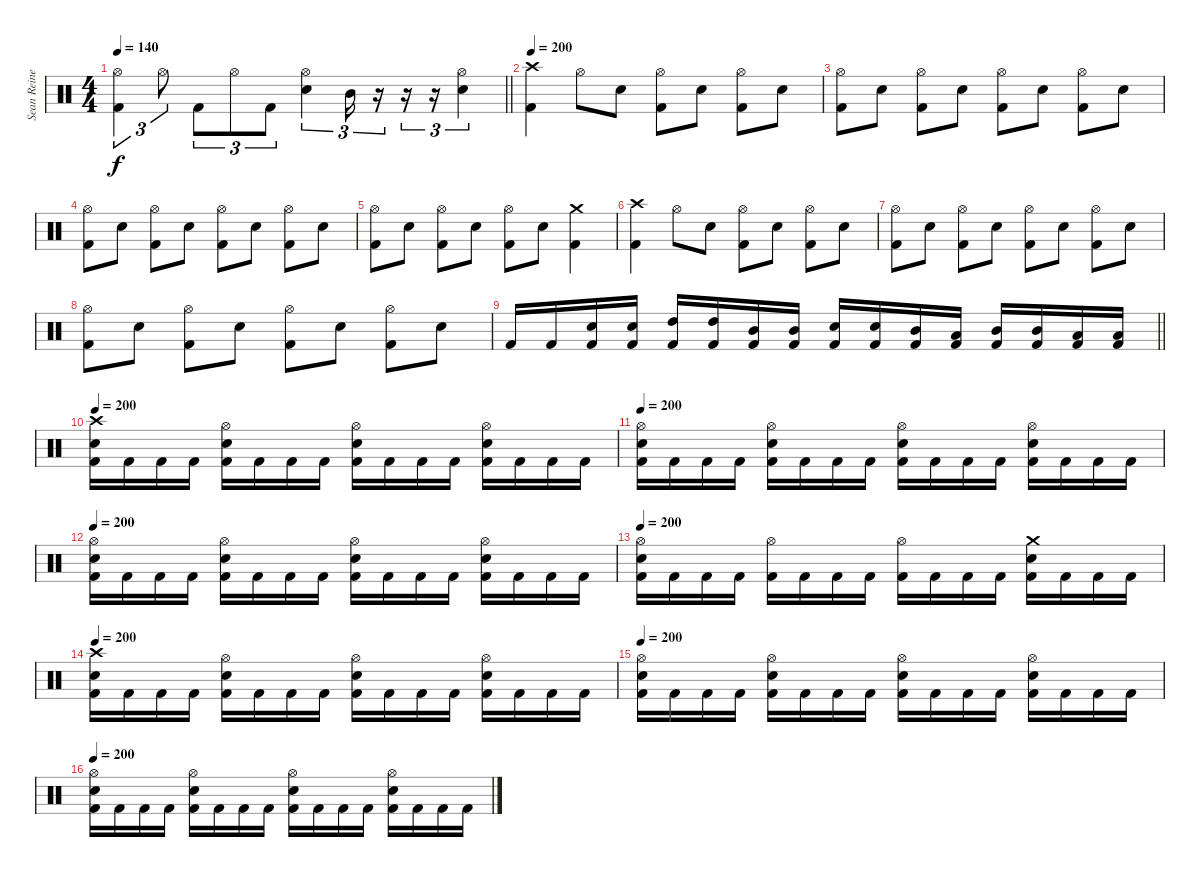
\track ("Sean Reinert" "Sean Reine") {instrument percussion}
\staff {score}
\articulation defaults
\ts (4 4)
\tempo 140
\clef neutral
\barLineRight lightlight
\ks c
("Hi-Hat (open)" "Kick (hit) 2").4{tu (3 2) dy f} "Hi-Hat (open)".8{tu (3 2)} "Kick (hit) 2".8{tu (3 2)} "Hi-Hat (open)".8{tu (3 2)} "Kick (hit) 2".8{tu (3 2)} ("Hi-Hat (open)" "Electric Snare (hit)").4{tu (3 2)} "Mid Tom (hit)".16{tu (3 2)} r.16{tu (3 2)} r.16{tu (3 2)} r.16{tu (3 2)} ("Hi-Hat (open)" "Electric Snare (hit)").4{tu (3 2)} |
\tempo 200
("Crash high (hit)" "Kick (hit) 2").4 "Hi-Hat (open)".8 "Electric Snare (hit)".8 ("Hi-Hat (open)" "Kick (hit) 2").8 "Electric Snare (hit)".8 ("Hi-Hat (open)" "Kick (hit) 2").8 "Electric Snare (hit)".8 |
("Hi-Hat (open)" "Kick (hit) 2").8 "Electric Snare (hit)".8 ("Hi-Hat (open)" "Kick (hit) 2").8 "Electric Snare (hit)".8 ("Hi-Hat (open)" "Kick (hit) 2").8 "Electric Snare (hit)".8 ("Hi-Hat (open)" "Kick (hit) 2").8 "Electric Snare (hit)".8 |
("Hi-Hat (open)" "Kick (hit) 2").8 "Electric Snare (hit)".8 ("Hi-Hat (open)" "Kick (hit) 2").8 "Electric Snare (hit)".8 ("Hi-Hat (open)" "Kick (hit) 2").8 "Electric Snare (hit)".8 ("Hi-Hat (open)" "Kick (hit) 2").8 "Electric Snare (hit)".8 |
("Hi-Hat (open)" "Kick (hit) 2").8 "Electric Snare (hit)".8 ("Hi-Hat (open)" "Kick (hit) 2").8 "Electric Snare (hit)".8 ("Hi-Hat (open)" "Kick (hit) 2").8 "Electric Snare (hit)".8 ("Crash medium (hit)" "Kick (hit) 2").4 |
("Crash high (hit)" "Kick (hit) 2").4 "Hi-Hat (open)".8 "Electric Snare (hit)".8 ("Hi-Hat (open)" "Kick (hit) 2").8 "Electric Snare (hit)".8 ("Hi-Hat (open)" "Kick (hit) 2").8 "Electric Snare (hit)".8 |
("Hi-Hat (open)" "Kick (hit) 2").8 "Electric Snare (hit)".8 ("Hi-Hat (open)" "Kick (hit) 2").8 "Electric Snare (hit)".8 ("Hi-Hat (open)" "Kick (hit) 2").8 "Electric Snare (hit)".8 ("Hi-Hat (open)" "Kick (hit) 2").8 "Electric Snare (hit)".8 |
("Hi-Hat (open)" "Kick (hit) 2").8 "Electric Snare (hit)".8 ("Hi-Hat (open)" "Kick (hit) 2").8 "Electric Snare (hit)".8 ("Hi-Hat (open)" "Kick (hit) 2").8 "Electric Snare (hit)".8 ("Hi-Hat (open)" "Kick (hit) 2").8 "Electric Snare (hit)".8 |
\barLineRight lightlight "Kick (hit) 2".16 "Kick (hit) 2".16
("Electric Snare (hit)" "Kick (hit) 2").16 ("Electric Snare (hit)" "Kick (hit) 2").16 ("High Tom (hit)" "Kick (hit) 2").16 ("High Tom (hit)" "Kick (hit) 2").16 ("Mid Tom (hit)" "Kick (hit) 2").16 ("Mid Tom (hit)" "Kick (hit) 2").16 ("Electric Snare (hit)" "Kick (hit) 2").16 ("Electric Snare (hit)" "Kick (hit) 2").16 ("Mid Tom (hit)" "Kick (hit) 2").16 ("Low Tom (hit)" "Kick (hit) 2").16 ("Mid Tom (hit)" "Kick (hit) 2").16 ("Mid Tom (hit)" "Kick (hit) 2").16 ("Low Tom (hit)" "Kick (hit) 2").16 ("Low Tom (hit)" "Kick (hit) 2").16 |
\tempo 200
("Crash high (hit)" "Electric Snare (hit)" "Kick (hit) 2").16 "Kick (hit) 2".16 "Kick (hit) 2".16 "Kick (hit) 2".16 ("Hi-Hat (open)" "Electric Snare (hit)" "Kick (hit) 2").16 "Kick (hit) 2".16 "Kick (hit) 2".16 "Kick (hit) 2".16 ("Hi-Hat (open)" "Electric Snare (hit)" "Kick (hit) 2").16 "Kick (hit) 2".16 "Kick (hit) 2".16 "Kick (hit) 2".16 ("Hi-Hat (open)" "Electric Snare (hit)" "Kick (hit) 2").16 "Kick (hit) 2".16 "Kick (hit) 2".16 "Kick (hit) 2".16 |
\tempo 200
("Hi-Hat (open)" "Electric Snare (hit)" "Kick (hit) 2").16 "Kick (hit) 2".16 "Kick (hit) 2".16 "Kick (hit) 2".16 ("Hi-Hat (open)" "Electric Snare (hit)" "Kick (hit) 2").16 "Kick (hit) 2".16 "Kick (hit) 2".16 "Kick (hit) 2".16 ("Hi-Hat (open)" "Electric Snare (hit)" "Kick (hit) 2").16 "Kick (hit) 2".16 "Kick (hit) 2".16 "Kick (hit) 2".16 ("Hi-Hat (open)" "Electric Snare (hit)" "Kick (hit) 2").16 "Kick (hit) 2".16 "Kick (hit) 2".16 "Kick (hit) 2".16 |
\tempo 200
("Hi-Hat (open)" "Electric Snare (hit)" "Kick (hit) 2").16 "Kick (hit) 2".16 "Kick (hit) 2".16 "Kick (hit) 2".16 ("Hi-Hat (open)" "Electric Snare (hit)" "Kick (hit) 2").16 "Kick (hit) 2".16 "Kick (hit) 2".16 "Kick (hit) 2".16 ("Hi-Hat (open)" "Electric Snare (hit)" "Kick (hit) 2").16 "Kick (hit) 2".16 "Kick (hit) 2".16 "Kick (hit) 2".16 ("Hi-Hat (open)" "Electric Snare (hit)" "Kick (hit) 2").16 "Kick (hit) 2".16 "Kick (hit) 2".16 "Kick (hit) 2".16 |
\tempo 200
("Hi-Hat (open)" "Electric Snare (hit)" "Kick (hit) 2").16 "Kick (hit) 2".16 "Kick (hit) 2".16 "Kick (hit) 2".16 ("Hi-Hat (open)" "Kick (hit) 2").16 "Kick (hit) 2".16 "Kick (hit) 2".16 "Kick (hit) 2".16 ("Hi-Hat (open)" "Kick (hit) 2").16 "Kick (hit) 2".16 "Kick (hit) 2".16 "Kick (hit) 2".16 ("Crash medium (hit)" "Electric Snare (hit)" "Kick (hit) 2").16 "Kick (hit) 2".16 "Kick (hit) 2".16 "Kick (hit) 2".16 |
\tempo 200
("Crash high (hit)" "Electric Snare (hit)" "Kick (hit) 2").16 "Kick (hit) 2".16 "Kick (hit) 2".16 "Kick (hit) 2".16 ("Hi-Hat (open)" "Electric Snare (hit)" "Kick (hit) 2").16 "Kick (hit) 2".16 "Kick (hit) 2".16 "Kick (hit) 2".16 ("Hi-Hat (open)" "Electric Snare (hit)" "Kick (hit) 2").16 "Kick (hit) 2".16 "Kick (hit) 2".16 "Kick (hit) 2".16 ("Hi-Hat (open)" "Electric Snare (hit)" "Kick (hit) 2").16 "Kick (hit) 2".16 "Kick (hit) 2".16 "Kick (hit) 2".16 |
\tempo 200
("Hi-Hat (open)" "Electric Snare (hit)" "Kick (hit) 2").16 "Kick (hit) 2".16 "Kick (hit) 2".16 "Kick (hit) 2".16 ("Hi-Hat (open)" "Electric Snare (hit)" "Kick (hit) 2").16 "Kick (hit) 2".16 "Kick (hit) 2".16 "Kick (hit) 2".16 ("Hi-Hat (open)" "Electric Snare (hit)" "Kick (hit) 2").16 "Kick (hit) 2".16 "Kick (hit) 2".16 "Kick (hit) 2".16 ("Hi-Hat (open)" "Electric Snare (hit)" "Kick (hit) 2").16 "Kick (hit) 2".16 "Kick (hit) 2".16 "Kick (hit) 2".16 |
\tempo 200
("Hi-Hat (open)" "Electric Snare (hit)" "Kick (hit) 2").16 "Kick (hit) 2".16 "Kick (hit) 2".16 "Kick (hit) 2".16 ("Hi-Hat (open)" "Electric Snare (hit)" "Kick (hit) 2").16 "Kick (hit) 2".16 "Kick (hit) 2".16 "Kick (hit) 2".16 ("Hi-Hat (open)" "Electric Snare (hit)" "Kick (hit) 2").16 "Kick (hit) 2".16 "Kick (hit) 2".16 "Kick (hit) 2".16 ("Hi-Hat (open)" "Electric Snare (hit)" "Kick (hit) 2").16 "Kick (hit) 2".16 "Kick (hit) 2".16 "Kick (hit) 2".16
